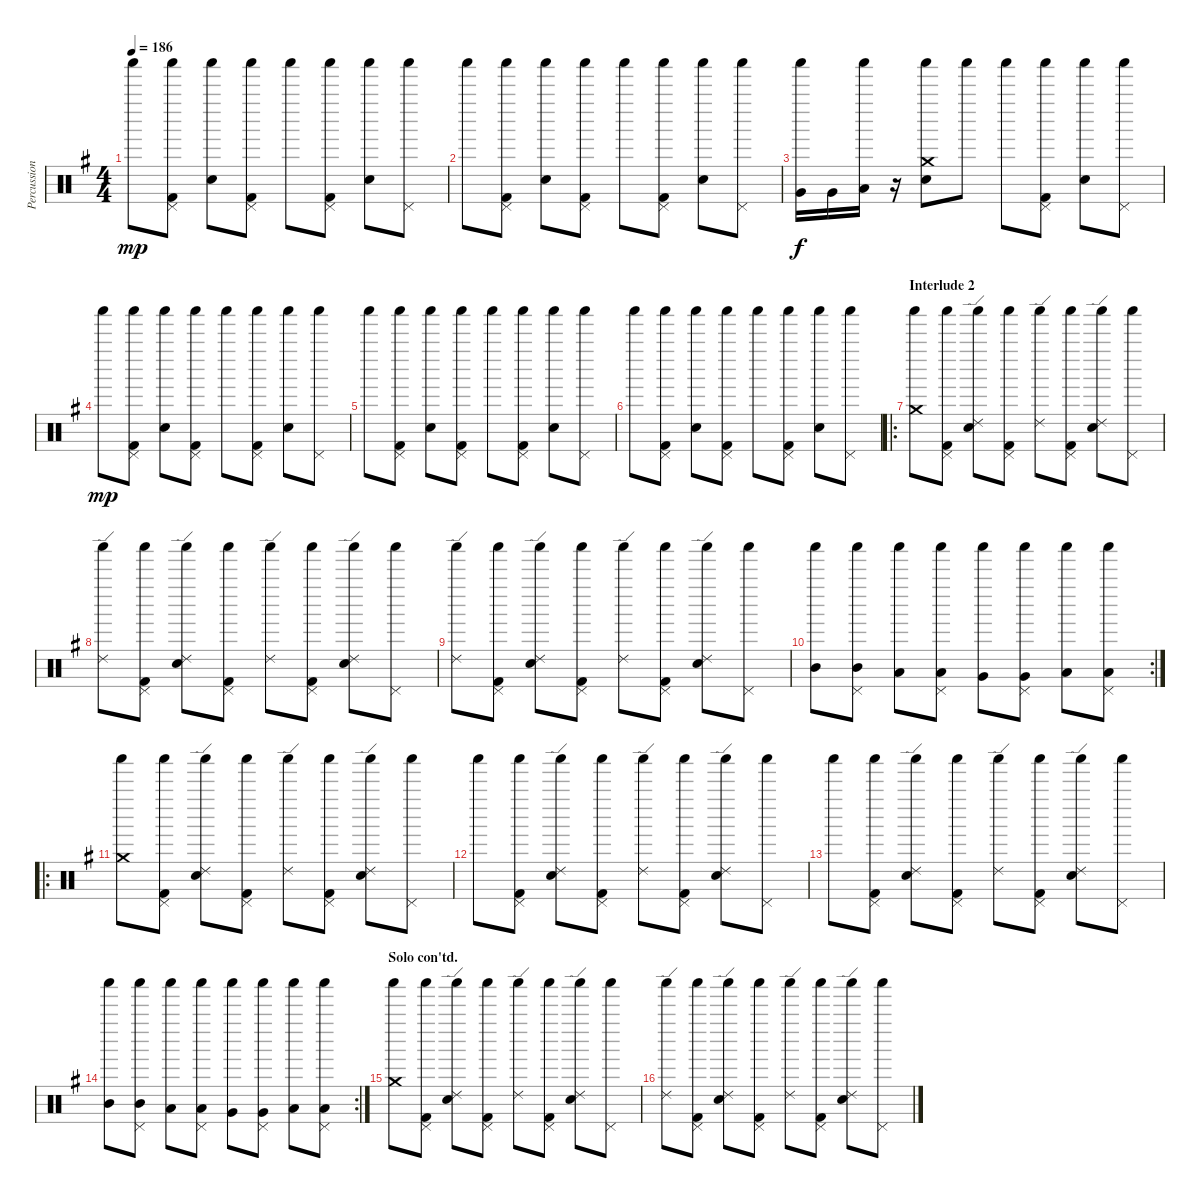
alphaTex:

\track ("Percussion" "Percussion") {instrument percussion}
\staff {score}
\articulation defaults
\ts (4 4)
\tempo 186
\clef neutral
\ks g "Shaker (hit)".8{dy mp}
("Shaker (hit)" "Pedal Hi-Hat (hit)" "Kick (hit) 2").8 ("Shaker (hit)" "Electric Snare (hit)").8 ("Shaker (hit)" "Pedal Hi-Hat (hit)" "Kick (hit) 2").8 "Shaker (hit)".8 ("Shaker (hit)" "Pedal Hi-Hat (hit)" "Kick (hit) 2").8 ("Shaker (hit)" "Electric Snare (hit)").8 ("Shaker (hit)" "Pedal Hi-Hat (hit)").8 |
"Shaker (hit)".8 ("Shaker (hit)" "Pedal Hi-Hat (hit)" "Kick (hit) 2").8 ("Shaker (hit)" "Electric Snare (hit)").8 ("Shaker (hit)" "Pedal Hi-Hat (hit)" "Kick (hit) 2").8 "Shaker (hit)".8 ("Shaker (hit)" "Pedal Hi-Hat (hit)" "Kick (hit) 2").8 ("Shaker (hit)" "Electric Snare (hit)").8 ("Shaker (hit)" "Pedal Hi-Hat (hit)").8 |
("Shaker (hit)" "Very Low Tom (hit)").16{dy f} "Very Low Tom (hit)".16 ("Shaker (hit)" "Low Floor Tom (hit)").16 r.16 ("Shaker (hit)" "Crash medium (hit)" "Electric Snare (hit)").8 "Shaker (hit)".8 "Shaker (hit)".8 ("Shaker (hit)" "Pedal Hi-Hat (hit)" "Kick (hit) 2").8 ("Shaker (hit)" "Electric Snare (hit)").8 ("Shaker (hit)" "Pedal Hi-Hat (hit)").8 |
"Shaker (hit)".8{dy mp} ("Shaker (hit)" "Pedal Hi-Hat (hit)" "Kick (hit) 2").8 ("Shaker (hit)" "Electric Snare (hit)").8 ("Shaker (hit)" "Pedal Hi-Hat (hit)" "Kick (hit) 2").8 "Shaker (hit)".8 ("Shaker (hit)" "Pedal Hi-Hat (hit)" "Kick (hit) 2").8 ("Shaker (hit)" "Electric Snare (hit)").8 ("Shaker (hit)" "Pedal Hi-Hat (hit)").8 |
"Shaker (hit)".8 ("Shaker (hit)" "Pedal Hi-Hat (hit)" "Kick (hit) 2").8 ("Shaker (hit)" "Electric Snare (hit)").8 ("Shaker (hit)" "Pedal Hi-Hat (hit)" "Kick (hit) 2").8 "Shaker (hit)".8 ("Shaker (hit)" "Pedal Hi-Hat (hit)" "Kick (hit) 2").8 ("Shaker (hit)" "Electric Snare (hit)").8 ("Shaker (hit)" "Pedal Hi-Hat (hit)").8 |
"Shaker (hit)".8 ("Shaker (hit)" "Pedal Hi-Hat (hit)" "Kick (hit) 2").8 ("Shaker (hit)" "Electric Snare (hit)").8 ("Shaker (hit)" "Pedal Hi-Hat (hit)" "Kick (hit) 2").8 "Shaker (hit)".8 ("Shaker (hit)" "Pedal Hi-Hat (hit)" "Kick (hit) 2").8 ("Shaker (hit)" "Electric Snare (hit)").8 ("Shaker (hit)" "Pedal Hi-Hat (hit)").8 |
\ro
\section ("" "Interlude 2")
("Shaker (hit)" "Crash medium (hit)").8 ("Shaker (hit)" "Pedal Hi-Hat (hit)" "Kick (hit) 2").8 ("Shaker (hit)" "Electric Snare (hit)" "Ride (edge) 2").8 ("Shaker (hit)" "Pedal Hi-Hat (hit)" "Kick (hit) 2").8 ("Shaker (hit)" "Ride (edge) 2").8 ("Shaker (hit)" "Pedal Hi-Hat (hit)" "Kick (hit) 2").8 ("Shaker (hit)" "Electric Snare (hit)" "Ride (edge) 2").8 ("Shaker (hit)" "Pedal Hi-Hat (hit)").8 |
("Shaker (hit)" "Ride (edge) 2").8 ("Shaker (hit)" "Pedal Hi-Hat (hit)" "Kick (hit) 2").8 ("Shaker (hit)" "Electric Snare (hit)" "Ride (edge) 2").8 ("Shaker (hit)" "Pedal Hi-Hat (hit)" "Kick (hit) 2").8 ("Shaker (hit)" "Ride (edge) 2").8 ("Shaker (hit)" "Pedal Hi-Hat (hit)" "Kick (hit) 2").8 ("Shaker (hit)" "Electric Snare (hit)" "Ride (edge) 2").8 ("Shaker (hit)" "Pedal Hi-Hat (hit)").8 |
("Shaker (hit)" "Ride (edge) 2").8 ("Shaker (hit)" "Pedal Hi-Hat (hit)" "Kick (hit) 2").8 ("Shaker (hit)" "Electric Snare (hit)" "Ride (edge) 2").8 ("Shaker (hit)" "Pedal Hi-Hat (hit)" "Kick (hit) 2").8 ("Shaker (hit)" "Ride (edge) 2").8 ("Shaker (hit)" "Pedal Hi-Hat (hit)" "Kick (hit) 2").8 ("Shaker (hit)" "Electric Snare (hit)" "Ride (edge) 2").8 ("Shaker (hit)" "Pedal Hi-Hat (hit)").8 |
\rc 2
("Shaker (hit)" "Mid Tom (hit)").8 ("Shaker (hit)" "Pedal Hi-Hat (hit)" "Mid Tom (hit)").8 ("Shaker (hit)" "Low Tom (hit)").8 ("Shaker (hit)" "Pedal Hi-Hat (hit)" "Low Tom (hit)").8 ("Shaker (hit)" "Very Low Tom (hit)").8 ("Shaker (hit)" "Pedal Hi-Hat (hit)" "Very Low Tom (hit)").8 ("Shaker (hit)" "Low Floor Tom (hit)").8 ("Shaker (hit)" "Pedal Hi-Hat (hit)" "Low Floor Tom (hit)").8 |
\ro
("Shaker (hit)" "Crash medium (hit)").8 ("Shaker (hit)" "Pedal Hi-Hat (hit)" "Kick (hit) 2").8 ("Shaker (hit)" "Electric Snare (hit)" "Ride (edge) 2").8 ("Shaker (hit)" "Pedal Hi-Hat (hit)" "Kick (hit) 2").8 ("Shaker (hit)" "Ride (edge) 2").8 ("Shaker (hit)" "Pedal Hi-Hat (hit)" "Kick (hit) 2").8 ("Shaker (hit)" "Electric Snare (hit)" "Ride (edge) 2").8 ("Shaker (hit)" "Pedal Hi-Hat (hit)").8 |
"Shaker (hit)".8 ("Shaker (hit)" "Pedal Hi-Hat (hit)" "Kick (hit) 2").8 ("Shaker (hit)" "Electric Snare (hit)" "Ride (edge) 2").8 ("Shaker (hit)" "Pedal Hi-Hat (hit)" "Kick (hit) 2").8 ("Shaker (hit)" "Ride (edge) 2").8 ("Shaker (hit)" "Pedal Hi-Hat (hit)" "Kick (hit) 2").8 ("Shaker (hit)" "Electric Snare (hit)" "Ride (edge) 2").8 ("Shaker (hit)" "Pedal Hi-Hat (hit)").8 |
"Shaker (hit)".8 ("Shaker (hit)" "Pedal Hi-Hat (hit)" "Kick (hit) 2").8 ("Shaker (hit)" "Electric Snare (hit)" "Ride (edge) 2").8 ("Shaker (hit)" "Pedal Hi-Hat (hit)" "Kick (hit) 2").8 ("Shaker (hit)" "Ride (edge) 2").8 ("Shaker (hit)" "Pedal Hi-Hat (hit)" "Kick (hit) 2").8 ("Shaker (hit)" "Electric Snare (hit)" "Ride (edge) 2").8 ("Shaker (hit)" "Pedal Hi-Hat (hit)").8 |
\rc 2
("Shaker (hit)" "Mid Tom (hit)").8 ("Shaker (hit)" "Pedal Hi-Hat (hit)" "Mid Tom (hit)").8 ("Shaker (hit)" "Low Tom (hit)").8 ("Shaker (hit)" "Pedal Hi-Hat (hit)" "Low Tom (hit)").8 ("Shaker (hit)" "Very Low Tom (hit)").8 ("Shaker (hit)" "Pedal Hi-Hat (hit)" "Very Low Tom (hit)").8 ("Shaker (hit)" "Low Floor Tom (hit)").8 ("Shaker (hit)" "Pedal Hi-Hat (hit)" "Low Floor Tom (hit)").8 |
\section ("" "Solo con'td.")
("Shaker (hit)" "Crash medium (hit)").8 ("Shaker (hit)" "Pedal Hi-Hat (hit)" "Kick (hit) 2").8 ("Shaker (hit)" "Electric Snare (hit)" "Ride (edge) 2").8 ("Shaker (hit)" "Pedal Hi-Hat (hit)" "Kick (hit) 2").8 ("Shaker (hit)" "Ride (edge) 2").8 ("Shaker (hit)" "Pedal Hi-Hat (hit)" "Kick (hit) 2").8 ("Shaker (hit)" "Electric Snare (hit)" "Ride (edge) 2").8 ("Shaker (hit)" "Pedal Hi-Hat (hit)").8 |
("Shaker (hit)" "Ride (edge) 2").8 ("Shaker (hit)" "Pedal Hi-Hat (hit)" "Kick (hit) 2").8 ("Shaker (hit)" "Electric Snare (hit)" "Ride (edge) 2").8 ("Shaker (hit)" "Pedal Hi-Hat (hit)" "Kick (hit) 2").8 ("Shaker (hit)" "Ride (edge) 2").8 ("Shaker (hit)" "Pedal Hi-Hat (hit)" "Kick (hit) 2").8 ("Shaker (hit)" "Electric Snare (hit)" "Ride (edge) 2").8 ("Shaker (hit)" "Pedal Hi-Hat (hit)").8
